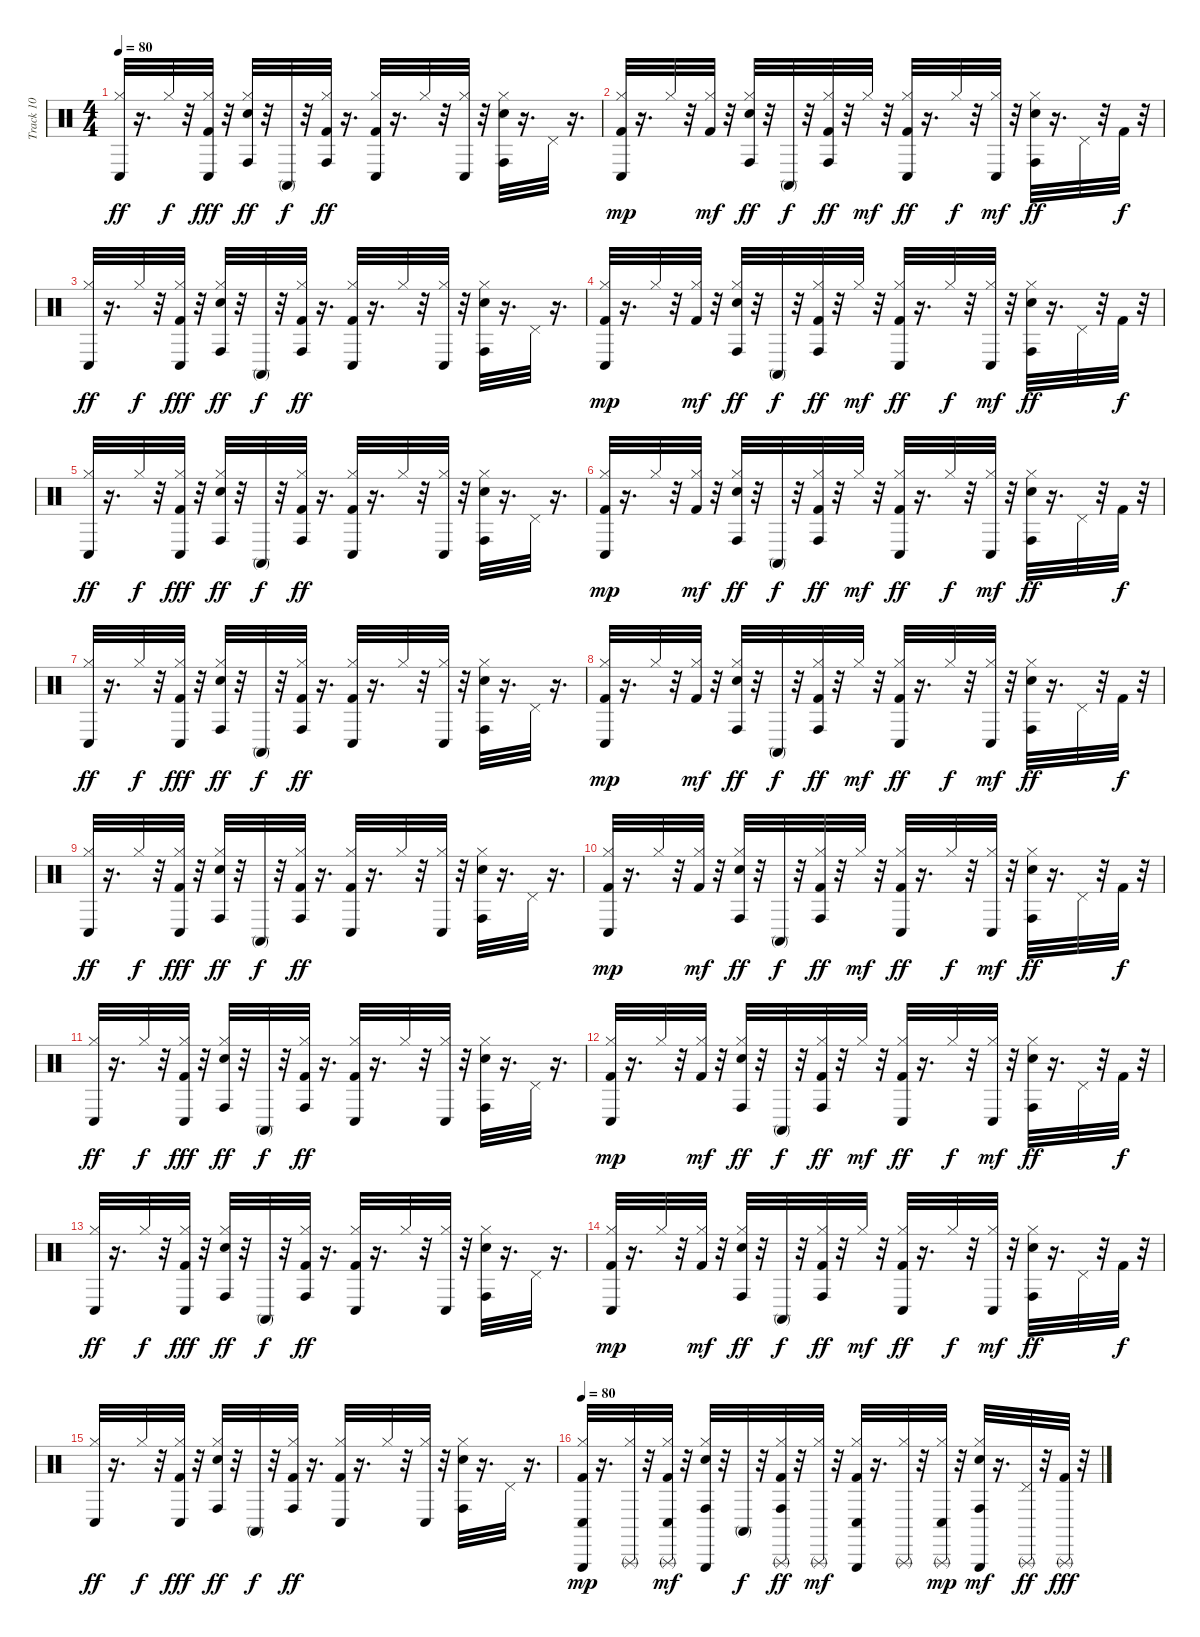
\track ("Track 10" "Track 10") {instrument percussion}
\staff {score}
\articulation defaults
\ts (4 4)
\tempo 80
\clef neutral
\ks c
("Conga low (hit)" "Hi-Hat (closed)").32{dy ff} r.16{d} "Hi-Hat (closed)".32{dy f} r.32 ("Conga low (hit)" "Kick (hit) 2" "Hi-Hat (closed)").32{dy fff} r.32 ("Conga high (hit)" "Snare (hit) 2" "Hi-Hat (closed)").32{dy ff} r.32 "Conga high (mute)".32{dy f} r.32 ("Hi-Hat (closed)" "Conga high (hit)" "Kick (hit) 2").32{dy ff} r.16{d} ("Conga low (hit)" "Kick (hit) 2" "Hi-Hat (closed)").32 r.16{d} "Hi-Hat (closed)".32 r.32 ("Conga low (hit)" "Hi-Hat (closed)").32 r.32 ("Conga high (hit)" "Snare (hit) 2" "Hi-Hat (closed)").32 r.16{d} "Pedal Hi-Hat (hit)".32 r.16{d} |
("Hi-Hat (closed)" "Kick (hit) 2" "Conga low (hit)").32{dy mp} r.16{d} "Hi-Hat (closed)".32 r.32 ("Kick (hit) 2" "Hi-Hat (closed)").32{dy mf} r.32 ("Conga high (hit)" "Snare (hit) 2" "Hi-Hat (closed)").32{dy ff} r.32 "Conga high (mute)".32{dy f} r.32 ("Conga high (hit)" "Kick (hit) 2" "Hi-Hat (closed)").32{dy ff} r.32 "Hi-Hat (closed)".32{dy mf} r.32 ("Conga low (hit)" "Kick (hit) 2" "Hi-Hat (closed)").32{dy ff} r.16{d} "Hi-Hat (closed)".32{dy f} r.32 ("Conga low (hit)" "Hi-Hat (closed)").32{dy mf} r.32 ("Conga high (hit)" "Snare (hit) 2" "Hi-Hat (closed)").32{dy ff} r.16{d} "Pedal Hi-Hat (hit)".32 r.32 "Kick (hit) 2".32{dy f} r.32 |
("Conga low (hit)" "Hi-Hat (closed)").32{dy ff} r.16{d} "Hi-Hat (closed)".32{dy f} r.32 ("Conga low (hit)" "Kick (hit) 2" "Hi-Hat (closed)").32{dy fff} r.32 ("Conga high (hit)" "Snare (hit) 2" "Hi-Hat (closed)").32{dy ff} r.32 "Conga high (mute)".32{dy f} r.32 ("Hi-Hat (closed)" "Conga high (hit)" "Kick (hit) 2").32{dy ff} r.16{d} ("Conga low (hit)" "Kick (hit) 2" "Hi-Hat (closed)").32 r.16{d} "Hi-Hat (closed)".32 r.32 ("Conga low (hit)" "Hi-Hat (closed)").32 r.32 ("Conga high (hit)" "Snare (hit) 2" "Hi-Hat (closed)").32 r.16{d} "Pedal Hi-Hat (hit)".32 r.16{d} |
("Hi-Hat (closed)" "Kick (hit) 2" "Conga low (hit)").32{dy mp} r.16{d} "Hi-Hat (closed)".32 r.32 ("Kick (hit) 2" "Hi-Hat (closed)").32{dy mf} r.32 ("Conga high (hit)" "Snare (hit) 2" "Hi-Hat (closed)").32{dy ff} r.32 "Conga high (mute)".32{dy f} r.32 ("Conga high (hit)" "Kick (hit) 2" "Hi-Hat (closed)").32{dy ff} r.32 "Hi-Hat (closed)".32{dy mf} r.32 ("Conga low (hit)" "Kick (hit) 2" "Hi-Hat (closed)").32{dy ff} r.16{d} "Hi-Hat (closed)".32{dy f} r.32 ("Conga low (hit)" "Hi-Hat (closed)").32{dy mf} r.32 ("Conga high (hit)" "Snare (hit) 2" "Hi-Hat (closed)").32{dy ff} r.16{d} "Pedal Hi-Hat (hit)".32 r.32 "Kick (hit) 2".32{dy f} r.32 |
("Conga low (hit)" "Hi-Hat (closed)").32{dy ff} r.16{d} "Hi-Hat (closed)".32{dy f} r.32 ("Conga low (hit)" "Kick (hit) 2" "Hi-Hat (closed)").32{dy fff} r.32 ("Conga high (hit)" "Snare (hit) 2" "Hi-Hat (closed)").32{dy ff} r.32 "Conga high (mute)".32{dy f} r.32 ("Hi-Hat (closed)" "Conga high (hit)" "Kick (hit) 2").32{dy ff} r.16{d} ("Conga low (hit)" "Kick (hit) 2" "Hi-Hat (closed)").32 r.16{d} "Hi-Hat (closed)".32 r.32 ("Conga low (hit)" "Hi-Hat (closed)").32 r.32 ("Conga high (hit)" "Snare (hit) 2" "Hi-Hat (closed)").32 r.16{d} "Pedal Hi-Hat (hit)".32 r.16{d} |
("Hi-Hat (closed)" "Kick (hit) 2" "Conga low (hit)").32{dy mp} r.16{d} "Hi-Hat (closed)".32 r.32 ("Kick (hit) 2" "Hi-Hat (closed)").32{dy mf} r.32 ("Conga high (hit)" "Snare (hit) 2" "Hi-Hat (closed)").32{dy ff} r.32 "Conga high (mute)".32{dy f} r.32 ("Conga high (hit)" "Kick (hit) 2" "Hi-Hat (closed)").32{dy ff} r.32 "Hi-Hat (closed)".32{dy mf} r.32 ("Conga low (hit)" "Kick (hit) 2" "Hi-Hat (closed)").32{dy ff} r.16{d} "Hi-Hat (closed)".32{dy f} r.32 ("Conga low (hit)" "Hi-Hat (closed)").32{dy mf} r.32 ("Conga high (hit)" "Snare (hit) 2" "Hi-Hat (closed)").32{dy ff} r.16{d} "Pedal Hi-Hat (hit)".32 r.32 "Kick (hit) 2".32{dy f} r.32 |
("Conga low (hit)" "Hi-Hat (closed)").32{dy ff} r.16{d} "Hi-Hat (closed)".32{dy f} r.32 ("Conga low (hit)" "Kick (hit) 2" "Hi-Hat (closed)").32{dy fff} r.32 ("Conga high (hit)" "Snare (hit) 2" "Hi-Hat (closed)").32{dy ff} r.32 "Conga high (mute)".32{dy f} r.32 ("Hi-Hat (closed)" "Conga high (hit)" "Kick (hit) 2").32{dy ff} r.16{d} ("Conga low (hit)" "Kick (hit) 2" "Hi-Hat (closed)").32 r.16{d} "Hi-Hat (closed)".32 r.32 ("Conga low (hit)" "Hi-Hat (closed)").32 r.32 ("Conga high (hit)" "Snare (hit) 2" "Hi-Hat (closed)").32 r.16{d} "Pedal Hi-Hat (hit)".32 r.16{d} |
("Hi-Hat (closed)" "Kick (hit) 2" "Conga low (hit)").32{dy mp} r.16{d} "Hi-Hat (closed)".32 r.32 ("Kick (hit) 2" "Hi-Hat (closed)").32{dy mf} r.32 ("Conga high (hit)" "Snare (hit) 2" "Hi-Hat (closed)").32{dy ff} r.32 "Conga high (mute)".32{dy f} r.32 ("Conga high (hit)" "Kick (hit) 2" "Hi-Hat (closed)").32{dy ff} r.32 "Hi-Hat (closed)".32{dy mf} r.32 ("Conga low (hit)" "Kick (hit) 2" "Hi-Hat (closed)").32{dy ff} r.16{d} "Hi-Hat (closed)".32{dy f} r.32 ("Conga low (hit)" "Hi-Hat (closed)").32{dy mf} r.32 ("Conga high (hit)" "Snare (hit) 2" "Hi-Hat (closed)").32{dy ff} r.16{d} "Pedal Hi-Hat (hit)".32 r.32 "Kick (hit) 2".32{dy f} r.32 |
("Conga low (hit)" "Hi-Hat (closed)").32{dy ff} r.16{d} "Hi-Hat (closed)".32{dy f} r.32 ("Conga low (hit)" "Kick (hit) 2" "Hi-Hat (closed)").32{dy fff} r.32 ("Conga high (hit)" "Snare (hit) 2" "Hi-Hat (closed)").32{dy ff} r.32 "Conga high (mute)".32{dy f} r.32 ("Hi-Hat (closed)" "Conga high (hit)" "Kick (hit) 2").32{dy ff} r.16{d} ("Conga low (hit)" "Kick (hit) 2" "Hi-Hat (closed)").32 r.16{d} "Hi-Hat (closed)".32 r.32 ("Conga low (hit)" "Hi-Hat (closed)").32 r.32 ("Conga high (hit)" "Snare (hit) 2" "Hi-Hat (closed)").32 r.16{d} "Pedal Hi-Hat (hit)".32 r.16{d} |
("Hi-Hat (closed)" "Kick (hit) 2" "Conga low (hit)").32{dy mp} r.16{d} "Hi-Hat (closed)".32 r.32 ("Kick (hit) 2" "Hi-Hat (closed)").32{dy mf} r.32 ("Conga high (hit)" "Snare (hit) 2" "Hi-Hat (closed)").32{dy ff} r.32 "Conga high (mute)".32{dy f} r.32 ("Conga high (hit)" "Kick (hit) 2" "Hi-Hat (closed)").32{dy ff} r.32 "Hi-Hat (closed)".32{dy mf} r.32 ("Conga low (hit)" "Kick (hit) 2" "Hi-Hat (closed)").32{dy ff} r.16{d} "Hi-Hat (closed)".32{dy f} r.32 ("Conga low (hit)" "Hi-Hat (closed)").32{dy mf} r.32 ("Conga high (hit)" "Snare (hit) 2" "Hi-Hat (closed)").32{dy ff} r.16{d} "Pedal Hi-Hat (hit)".32 r.32 "Kick (hit) 2".32{dy f} r.32 |
("Conga low (hit)" "Hi-Hat (closed)").32{dy ff} r.16{d} "Hi-Hat (closed)".32{dy f} r.32 ("Conga low (hit)" "Kick (hit) 2" "Hi-Hat (closed)").32{dy fff} r.32 ("Conga high (hit)" "Snare (hit) 2" "Hi-Hat (closed)").32{dy ff} r.32 "Conga high (mute)".32{dy f} r.32 ("Hi-Hat (closed)" "Conga high (hit)" "Kick (hit) 2").32{dy ff} r.16{d} ("Conga low (hit)" "Kick (hit) 2" "Hi-Hat (closed)").32 r.16{d} "Hi-Hat (closed)".32 r.32 ("Conga low (hit)" "Hi-Hat (closed)").32 r.32 ("Conga high (hit)" "Snare (hit) 2" "Hi-Hat (closed)").32 r.16{d} "Pedal Hi-Hat (hit)".32 r.16{d} |
("Hi-Hat (closed)" "Kick (hit) 2" "Conga low (hit)").32{dy mp} r.16{d} "Hi-Hat (closed)".32 r.32 ("Kick (hit) 2" "Hi-Hat (closed)").32{dy mf} r.32 ("Conga high (hit)" "Snare (hit) 2" "Hi-Hat (closed)").32{dy ff} r.32 "Conga high (mute)".32{dy f} r.32 ("Conga high (hit)" "Kick (hit) 2" "Hi-Hat (closed)").32{dy ff} r.32 "Hi-Hat (closed)".32{dy mf} r.32 ("Conga low (hit)" "Kick (hit) 2" "Hi-Hat (closed)").32{dy ff} r.16{d} "Hi-Hat (closed)".32{dy f} r.32 ("Conga low (hit)" "Hi-Hat (closed)").32{dy mf} r.32 ("Conga high (hit)" "Snare (hit) 2" "Hi-Hat (closed)").32{dy ff} r.16{d} "Pedal Hi-Hat (hit)".32 r.32 "Kick (hit) 2".32{dy f} r.32 |
("Conga low (hit)" "Hi-Hat (closed)").32{dy ff} r.16{d} "Hi-Hat (closed)".32{dy f} r.32 ("Conga low (hit)" "Kick (hit) 2" "Hi-Hat (closed)").32{dy fff} r.32 ("Conga high (hit)" "Snare (hit) 2" "Hi-Hat (closed)").32{dy ff} r.32 "Conga high (mute)".32{dy f} r.32 ("Hi-Hat (closed)" "Conga high (hit)" "Kick (hit) 2").32{dy ff} r.16{d} ("Conga low (hit)" "Kick (hit) 2" "Hi-Hat (closed)").32 r.16{d} "Hi-Hat (closed)".32 r.32 ("Conga low (hit)" "Hi-Hat (closed)").32 r.32 ("Conga high (hit)" "Snare (hit) 2" "Hi-Hat (closed)").32 r.16{d} "Pedal Hi-Hat (hit)".32 r.16{d} |
("Hi-Hat (closed)" "Kick (hit) 2" "Conga low (hit)").32{dy mp} r.16{d} "Hi-Hat (closed)".32 r.32 ("Kick (hit) 2" "Hi-Hat (closed)").32{dy mf} r.32 ("Conga high (hit)" "Snare (hit) 2" "Hi-Hat (closed)").32{dy ff} r.32 "Conga high (mute)".32{dy f} r.32 ("Conga high (hit)" "Kick (hit) 2" "Hi-Hat (closed)").32{dy ff} r.32 "Hi-Hat (closed)".32{dy mf} r.32 ("Conga low (hit)" "Kick (hit) 2" "Hi-Hat (closed)").32{dy ff} r.16{d} "Hi-Hat (closed)".32{dy f} r.32 ("Conga low (hit)" "Hi-Hat (closed)").32{dy mf} r.32 ("Conga high (hit)" "Snare (hit) 2" "Hi-Hat (closed)").32{dy ff} r.16{d} "Pedal Hi-Hat (hit)".32 r.32 "Kick (hit) 2".32{dy f} r.32 |
("Conga low (hit)" "Hi-Hat (closed)").32{dy ff} r.16{d} "Hi-Hat (closed)".32{dy f} r.32 ("Conga low (hit)" "Kick (hit) 2" "Hi-Hat (closed)").32{dy fff} r.32 ("Conga high (hit)" "Snare (hit) 2" "Hi-Hat (closed)").32{dy ff} r.32 "Conga high (mute)".32{dy f} r.32 ("Hi-Hat (closed)" "Conga high (hit)" "Kick (hit) 2").32{dy ff} r.16{d} ("Conga low (hit)" "Kick (hit) 2" "Hi-Hat (closed)").32 r.16{d} "Hi-Hat (closed)".32 r.32 ("Conga low (hit)" "Hi-Hat (closed)").32 r.32 ("Conga high (hit)" "Snare (hit) 2" "Hi-Hat (closed)").32 r.16{d} "Pedal Hi-Hat (hit)".32 r.16{d} |
\tempo 80
("Hi-Hat (closed)" "Kick (hit) 2" "Conga low (hit)" "Triangle (hit)").32{dy mp} r.16{d} ("Triangle (rnute)" "Hi-Hat (closed)").32 r.32 ("Triangle (rnute)" "Conga low (hit)" "Kick (hit) 2" "Hi-Hat (closed)").32{dy mf} r.32 ("Conga high (hit)" "Snare (hit) 2" "Hi-Hat (closed)" "Triangle (hit)").32 r.32 "Conga high (mute)".32{dy f} r.32 ("Triangle (rnute)" "Conga high (hit)" "Kick (hit) 2" "Hi-Hat (closed)").32{dy ff} r.32 ("Triangle (rnute)" "Hi-Hat (closed)").32{dy mf} r.32 ("Conga low (hit)" "Kick (hit) 2" "Hi-Hat (closed)" "Triangle (hit)").32 r.16{d} ("Triangle (rnute)" "Hi-Hat (closed)").32 r.32 ("Conga low (hit)" "Hi-Hat (closed)" "Triangle (rnute)").32{dy mp} r.32 ("Conga high (hit)" "Snare (hit) 2" "Hi-Hat (closed)" "Triangle (hit)").32{dy mf} r.16{d} ("Triangle (rnute)" "Pedal Hi-Hat (hit)").32{dy ff} r.32 ("Triangle (rnute)" "Kick (hit) 2").32{dy fff} r.32
